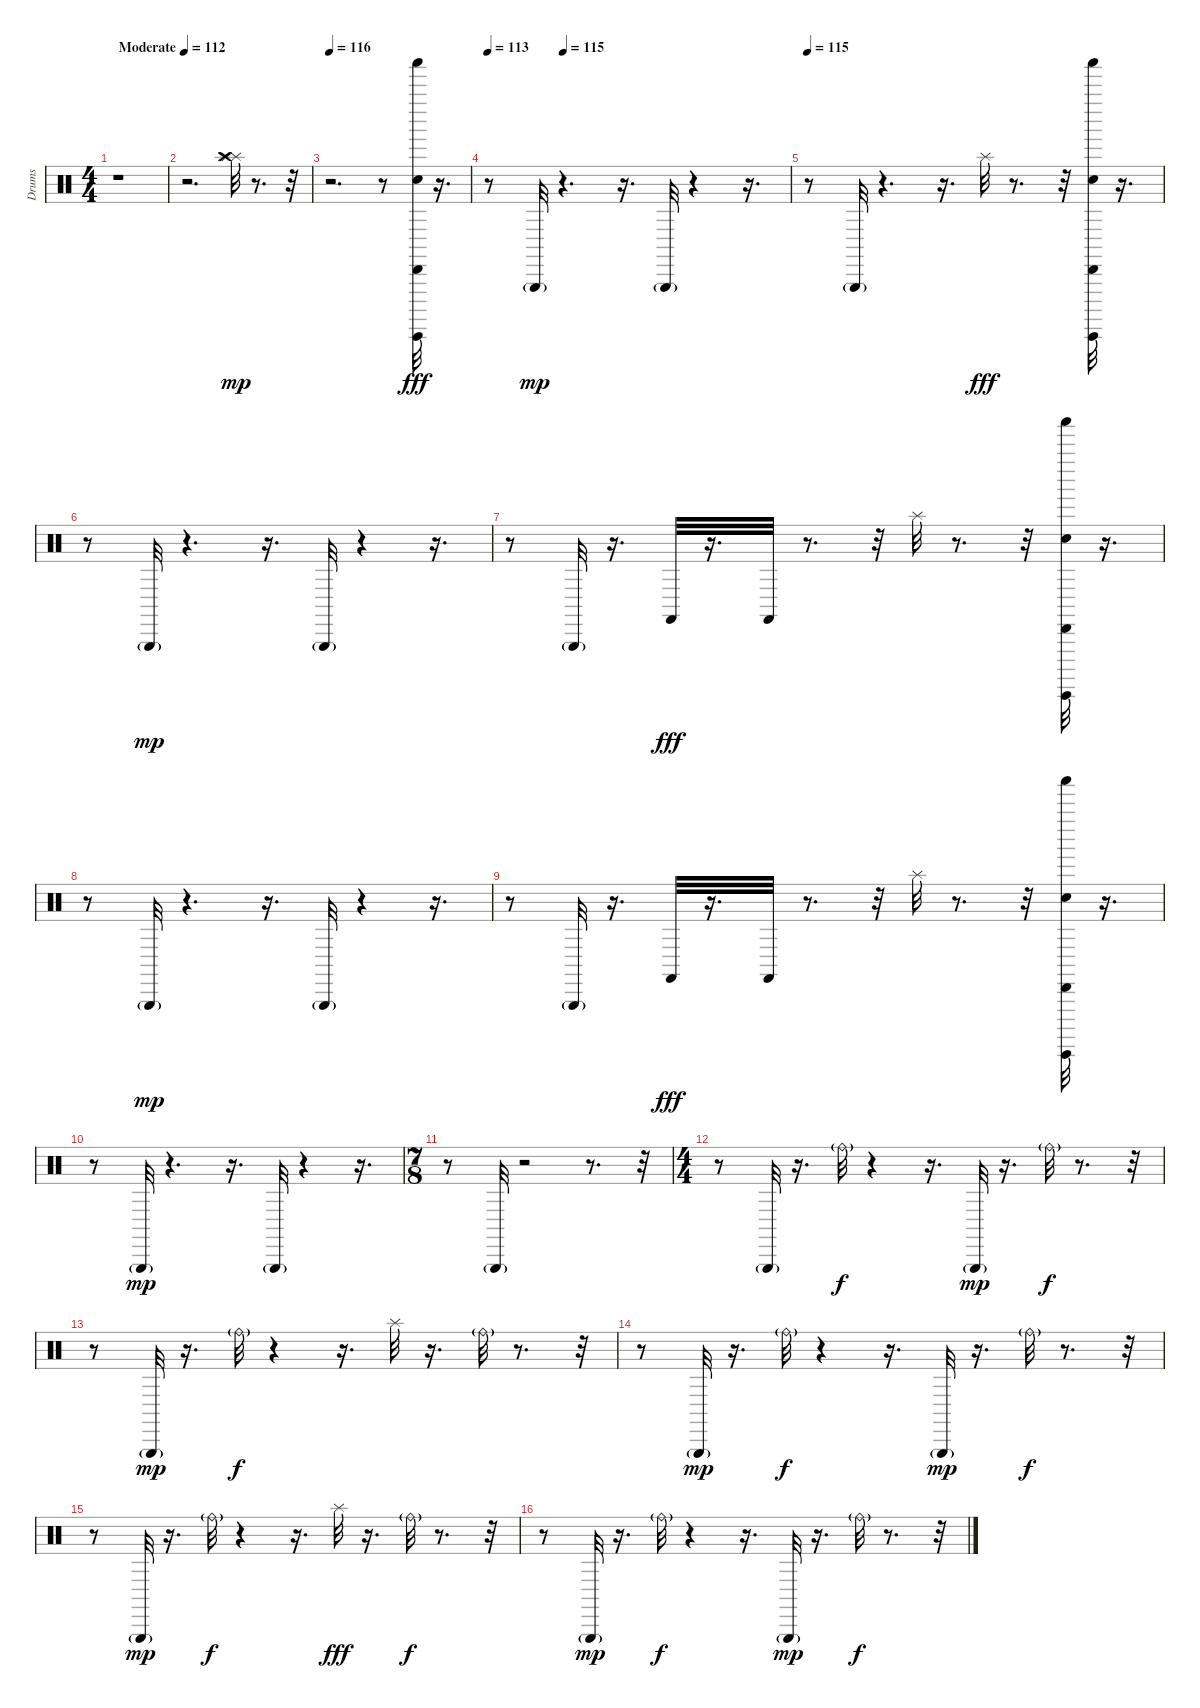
\track ("Drums" "Drums") {instrument percussion}
\staff {score}
\articulation defaults
\ts (4 4)
\tempo (112 "Moderate")
\clef neutral
\ks c
r.1{dy mp} |
r.2{d} ("Splash (hit)" "Splash (hit)" "Crash high (hit)").32 r.8{d} r.32 |
\tempo 116
r.2{d} r.8 ("Snare (hit)" "Cabasa (hit)" "Guiro (hit)" "Shaker (hit)").32{dy fff} r.16{d} |
\tempo 113
\tempo (115 0.25)
r.8 "Triangle (hit)"{g}.32{dy mp} r.4{d} r.16{d} "Triangle (hit)"{g}.32 r.4 r.16{d} |
\tempo 115
r.8 "Triangle (hit)"{g}.32 r.4{d} r.16{d} "Splash (hit)".32{dy fff} r.8{d} r.32 ("Snare (hit)" "Cabasa (hit)" "Guiro (hit)" "Shaker (hit)").32 r.16{d} |
r.8 "Triangle (hit)"{g}.32{dy mp} r.4{d} r.16{d} "Triangle (hit)"{g}.32 r.4 r.16{d} |
r.8 "Triangle (hit)"{g}.32 r.16{d} "Castanets (hit)".32{dy fff} r.16{d} "Castanets (hit)".32 r.8{d} r.32 "Splash (hit)".32 r.8{d} r.32 ("Snare (hit)" "Cabasa (hit)" "Guiro (hit)" "Shaker (hit)").32 r.16{d} |
r.8 "Triangle (hit)"{g}.32{dy mp} r.4{d} r.16{d} "Triangle (hit)"{g}.32 r.4 r.16{d} |
r.8 "Triangle (hit)"{g}.32 r.16{d} "Castanets (hit)".32{dy fff} r.16{d} "Castanets (hit)".32 r.8{d} r.32 "Splash (hit)".32 r.8{d} r.32 ("Snare (hit)" "Cabasa (hit)" "Guiro (hit)" "Shaker (hit)").32 r.16{d} |
r.8 "Triangle (hit)"{g}.32{dy mp} r.4{d} r.16{d} "Triangle (hit)"{g}.32 r.4 r.16{d} |
\ts (7 8)
r.8 "Triangle (hit)"{g}.32 r.2 r.8{d} r.32 |
\ts (4 4)
r.8 "Triangle (hit)"{g}.32 r.16{d} "Ride (bell)"{g}.32{dy f} r.4 r.16{d} "Triangle (hit)"{g}.32{dy mp} r.16{d} "Ride (bell)"{g}.32{dy f} r.8{d} r.32 |
r.8 "Triangle (hit)"{g}.32{dy mp} r.16{d} "Ride (bell)"{g}.32{dy f} r.4 r.16{d} "Splash (hit)".32 r.16{d} "Ride (bell)"{g}.32 r.8{d} r.32 |
r.8 "Triangle (hit)"{g}.32{dy mp} r.16{d} "Ride (bell)"{g}.32{dy f} r.4 r.16{d} "Triangle (hit)"{g}.32{dy mp} r.16{d} "Ride (bell)"{g}.32{dy f} r.8{d} r.32 |
r.8 "Triangle (hit)"{g}.32{dy mp} r.16{d} "Ride (bell)"{g}.32{dy f} r.4 r.16{d} "Splash (hit)".32{dy fff} r.16{d} "Ride (bell)"{g}.32{dy f} r.8{d} r.32 |
r.8 "Triangle (hit)"{g}.32{dy mp} r.16{d} "Ride (bell)"{g}.32{dy f} r.4 r.16{d} "Triangle (hit)"{g}.32{dy mp} r.16{d} "Ride (bell)"{g}.32{dy f} r.8{d} r.32
